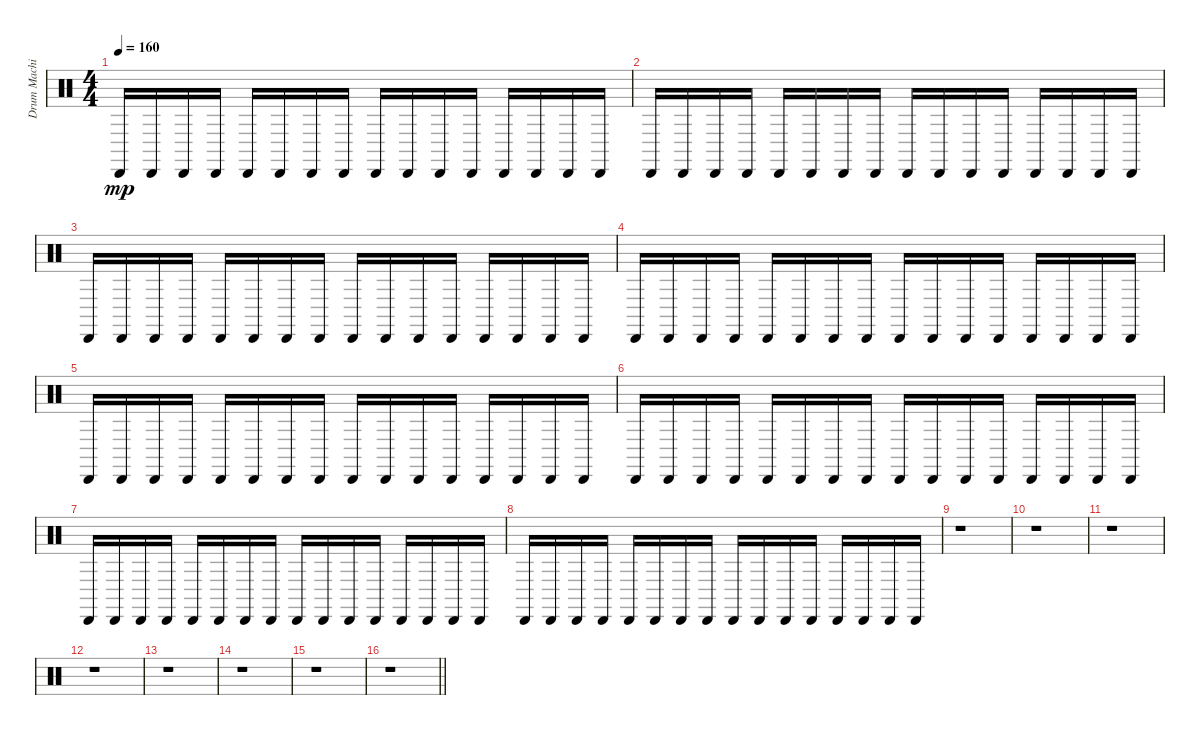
\track ("Drum Machine" "Drum Machi") {instrument percussion}
\staff {score}
\articulation defaults
\ts (4 4)
\tempo 160
\clef neutral
\ks c "Cabasa (hit)".16{dy mp} "Cabasa (hit)".16 "Cabasa (hit)".16 "Cabasa (hit)".16 "Cabasa (hit)".16 "Cabasa (hit)".16 "Cabasa (hit)".16 "Cabasa (hit)".16 "Cabasa (hit)".16 "Cabasa (hit)".16 "Cabasa (hit)".16 "Cabasa (hit)".16 "Cabasa (hit)".16 "Cabasa (hit)".16 "Cabasa (hit)".16 "Cabasa (hit)".16
|
"Cabasa (hit)".16 "Cabasa (hit)".16 "Cabasa (hit)".16 "Cabasa (hit)".16 "Cabasa (hit)".16 "Cabasa (hit)".16 "Cabasa (hit)".16 "Cabasa (hit)".16 "Cabasa (hit)".16 "Cabasa (hit)".16 "Cabasa (hit)".16 "Cabasa (hit)".16 "Cabasa (hit)".16 "Cabasa (hit)".16 "Cabasa (hit)".16 "Cabasa (hit)".16 |
"Cabasa (hit)".16 "Cabasa (hit)".16 "Cabasa (hit)".16 "Cabasa (hit)".16 "Cabasa (hit)".16 "Cabasa (hit)".16 "Cabasa (hit)".16 "Cabasa (hit)".16 "Cabasa (hit)".16 "Cabasa (hit)".16 "Cabasa (hit)".16 "Cabasa (hit)".16 "Cabasa (hit)".16 "Cabasa (hit)".16 "Cabasa (hit)".16 "Cabasa (hit)".16 |
"Cabasa (hit)".16 "Cabasa (hit)".16 "Cabasa (hit)".16 "Cabasa (hit)".16 "Cabasa (hit)".16 "Cabasa (hit)".16 "Cabasa (hit)".16 "Cabasa (hit)".16 "Cabasa (hit)".16 "Cabasa (hit)".16 "Cabasa (hit)".16 "Cabasa (hit)".16 "Cabasa (hit)".16 "Cabasa (hit)".16 "Cabasa (hit)".16 "Cabasa (hit)".16 |
"Cabasa (hit)".16 "Cabasa (hit)".16 "Cabasa (hit)".16 "Cabasa (hit)".16 "Cabasa (hit)".16 "Cabasa (hit)".16 "Cabasa (hit)".16 "Cabasa (hit)".16 "Cabasa (hit)".16 "Cabasa (hit)".16 "Cabasa (hit)".16 "Cabasa (hit)".16 "Cabasa (hit)".16 "Cabasa (hit)".16 "Cabasa (hit)".16 "Cabasa (hit)".16 |
"Cabasa (hit)".16 "Cabasa (hit)".16 "Cabasa (hit)".16 "Cabasa (hit)".16 "Cabasa (hit)".16 "Cabasa (hit)".16 "Cabasa (hit)".16 "Cabasa (hit)".16 "Cabasa (hit)".16 "Cabasa (hit)".16 "Cabasa (hit)".16 "Cabasa (hit)".16 "Cabasa (hit)".16 "Cabasa (hit)".16 "Cabasa (hit)".16 "Cabasa (hit)".16 |
"Cabasa (hit)".16 "Cabasa (hit)".16 "Cabasa (hit)".16 "Cabasa (hit)".16 "Cabasa (hit)".16 "Cabasa (hit)".16 "Cabasa (hit)".16 "Cabasa (hit)".16 "Cabasa (hit)".16 "Cabasa (hit)".16 "Cabasa (hit)".16 "Cabasa (hit)".16 "Cabasa (hit)".16 "Cabasa (hit)".16 "Cabasa (hit)".16 "Cabasa (hit)".16 |
"Cabasa (hit)".16 "Cabasa (hit)".16 "Cabasa (hit)".16 "Cabasa (hit)".16 "Cabasa (hit)".16 "Cabasa (hit)".16 "Cabasa (hit)".16 "Cabasa (hit)".16 "Cabasa (hit)".16 "Cabasa (hit)".16 "Cabasa (hit)".16 "Cabasa (hit)".16 "Cabasa (hit)".16 "Cabasa (hit)".16 "Cabasa (hit)".16 "Cabasa (hit)".16 |
r.1 |
r.1 |
r.1 |
r.1 |
r.1 |
r.1 |
r.1 |
\barLineRight lightlight
r.1
